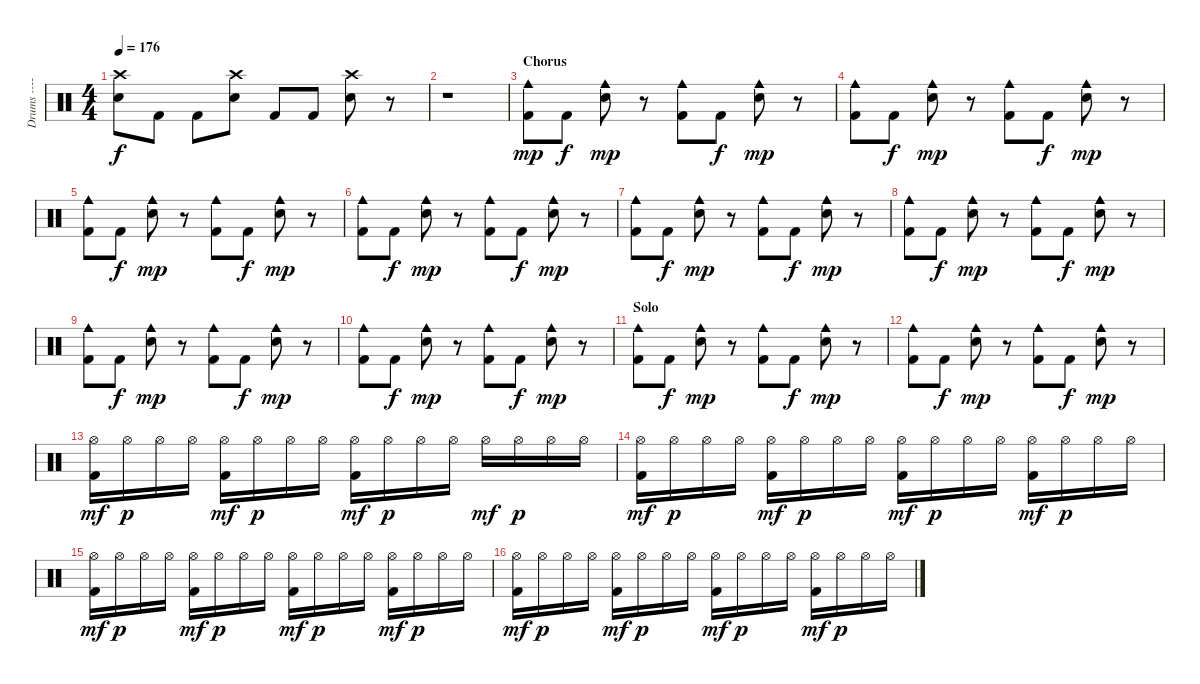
\track ("Drums ----- Larry Mullen Junior" "Drums ----") {instrument percussion}
\staff {score}
\articulation defaults
\ts (4 4)
\tempo 176
\clef neutral
\ks c
("Electric Snare (hit)" "Crash high (hit)").8{dy f} "Kick (hit) 2".8 "Kick (hit) 2".8 ("Electric Snare (hit)" "Crash high (hit)").8 "Kick (hit) 2".8 "Kick (hit) 2".8 ("Electric Snare (hit)" "Crash high (hit)").8 r.8 |
r.1 |
\section ("" "Chorus")
("Kick (hit) 2" "Cowbell medium (hit)").8{dy mp} "Kick (hit) 2".8{dy f} ("Electric Snare (hit)" "Cowbell medium (hit)").8{dy mp} r.8 ("Kick (hit) 2" "Cowbell medium (hit)").8 "Kick (hit) 2".8{dy f} ("Electric Snare (hit)" "Cowbell medium (hit)").8{dy mp} r.8 |
("Kick (hit) 2" "Cowbell medium (hit)").8 "Kick (hit) 2".8{dy f} ("Electric Snare (hit)" "Cowbell medium (hit)").8{dy mp} r.8 ("Kick (hit) 2" "Cowbell medium (hit)").8 "Kick (hit) 2".8{dy f} ("Electric Snare (hit)" "Cowbell medium (hit)").8{dy mp} r.8 |
("Kick (hit) 2" "Cowbell medium (hit)").8 "Kick (hit) 2".8{dy f} ("Electric Snare (hit)" "Cowbell medium (hit)").8{dy mp} r.8 ("Kick (hit) 2" "Cowbell medium (hit)").8 "Kick (hit) 2".8{dy f} ("Electric Snare (hit)" "Cowbell medium (hit)").8{dy mp} r.8 |
("Kick (hit) 2" "Cowbell medium (hit)").8 "Kick (hit) 2".8{dy f} ("Electric Snare (hit)" "Cowbell medium (hit)").8{dy mp} r.8 ("Kick (hit) 2" "Cowbell medium (hit)").8 "Kick (hit) 2".8{dy f} ("Electric Snare (hit)" "Cowbell medium (hit)").8{dy mp} r.8 |
("Kick (hit) 2" "Cowbell medium (hit)").8 "Kick (hit) 2".8{dy f} ("Electric Snare (hit)" "Cowbell medium (hit)").8{dy mp} r.8 ("Kick (hit) 2" "Cowbell medium (hit)").8 "Kick (hit) 2".8{dy f} ("Electric Snare (hit)" "Cowbell medium (hit)").8{dy mp} r.8 |
("Kick (hit) 2" "Cowbell medium (hit)").8 "Kick (hit) 2".8{dy f} ("Electric Snare (hit)" "Cowbell medium (hit)").8{dy mp} r.8 ("Kick (hit) 2" "Cowbell medium (hit)").8 "Kick (hit) 2".8{dy f} ("Electric Snare (hit)" "Cowbell medium (hit)").8{dy mp} r.8 |
("Kick (hit) 2" "Cowbell medium (hit)").8 "Kick (hit) 2".8{dy f} ("Electric Snare (hit)" "Cowbell medium (hit)").8{dy mp} r.8 ("Kick (hit) 2" "Cowbell medium (hit)").8 "Kick (hit) 2".8{dy f} ("Electric Snare (hit)" "Cowbell medium (hit)").8{dy mp} r.8 |
("Kick (hit) 2" "Cowbell medium (hit)").8 "Kick (hit) 2".8{dy f} ("Electric Snare (hit)" "Cowbell medium (hit)").8{dy mp} r.8 ("Kick (hit) 2" "Cowbell medium (hit)").8 "Kick (hit) 2".8{dy f} ("Electric Snare (hit)" "Cowbell medium (hit)").8{dy mp} r.8 |
\section ("" "Solo")
("Kick (hit) 2" "Cowbell medium (hit)").8 "Kick (hit) 2".8{dy f} ("Electric Snare (hit)" "Cowbell medium (hit)").8{dy mp} r.8 ("Kick (hit) 2" "Cowbell medium (hit)").8 "Kick (hit) 2".8{dy f} ("Electric Snare (hit)" "Cowbell medium (hit)").8{dy mp} r.8 |
("Kick (hit) 2" "Cowbell medium (hit)").8 "Kick (hit) 2".8{dy f} ("Electric Snare (hit)" "Cowbell medium (hit)").8{dy mp} r.8 ("Kick (hit) 2" "Cowbell medium (hit)").8 "Kick (hit) 2".8{dy f} ("Electric Snare (hit)" "Cowbell medium (hit)").8{dy mp} r.8 |
("Kick (hit) 2" "Hi-Hat (open)").16{dy mf} "Hi-Hat (open)".16{dy p} "Hi-Hat (open)".16 "Hi-Hat (open)".16 ("Kick (hit) 2" "Hi-Hat (open)").16{dy mf} "Hi-Hat (open)".16{dy p} "Hi-Hat (open)".16 "Hi-Hat (open)".16 ("Kick (hit) 2" "Hi-Hat (open)").16{dy mf} "Hi-Hat (open)".16{dy p} "Hi-Hat (open)".16 "Hi-Hat (open)".16 "Hi-Hat (open)".16{dy mf} "Hi-Hat (open)".16{dy p} "Hi-Hat (open)".16 "Hi-Hat (open)".16 |
("Kick (hit) 2" "Hi-Hat (open)").16{dy mf} "Hi-Hat (open)".16{dy p} "Hi-Hat (open)".16 "Hi-Hat (open)".16 ("Kick (hit) 2" "Hi-Hat (open)").16{dy mf} "Hi-Hat (open)".16{dy p} "Hi-Hat (open)".16 "Hi-Hat (open)".16 ("Kick (hit) 2" "Hi-Hat (open)").16{dy mf} "Hi-Hat (open)".16{dy p} "Hi-Hat (open)".16 "Hi-Hat (open)".16 ("Kick (hit) 2" "Hi-Hat (open)").16{dy mf} "Hi-Hat (open)".16{dy p} "Hi-Hat (open)".16 "Hi-Hat (open)".16 |
("Kick (hit) 2" "Hi-Hat (open)").16{dy mf} "Hi-Hat (open)".16{dy p} "Hi-Hat (open)".16 "Hi-Hat (open)".16 ("Kick (hit) 2" "Hi-Hat (open)").16{dy mf} "Hi-Hat (open)".16{dy p} "Hi-Hat (open)".16 "Hi-Hat (open)".16 ("Kick (hit) 2" "Hi-Hat (open)").16{dy mf} "Hi-Hat (open)".16{dy p} "Hi-Hat (open)".16 "Hi-Hat (open)".16 ("Kick (hit) 2" "Hi-Hat (open)").16{dy mf} "Hi-Hat (open)".16{dy p} "Hi-Hat (open)".16 "Hi-Hat (open)".16 |
("Kick (hit) 2" "Hi-Hat (open)").16{dy mf} "Hi-Hat (open)".16{dy p} "Hi-Hat (open)".16 "Hi-Hat (open)".16 ("Kick (hit) 2" "Hi-Hat (open)").16{dy mf} "Hi-Hat (open)".16{dy p} "Hi-Hat (open)".16 "Hi-Hat (open)".16 ("Kick (hit) 2" "Hi-Hat (open)").16{dy mf} "Hi-Hat (open)".16{dy p} "Hi-Hat (open)".16 "Hi-Hat (open)".16 ("Kick (hit) 2" "Hi-Hat (open)").16{dy mf} "Hi-Hat (open)".16{dy p} "Hi-Hat (open)".16 "Hi-Hat (open)".16
